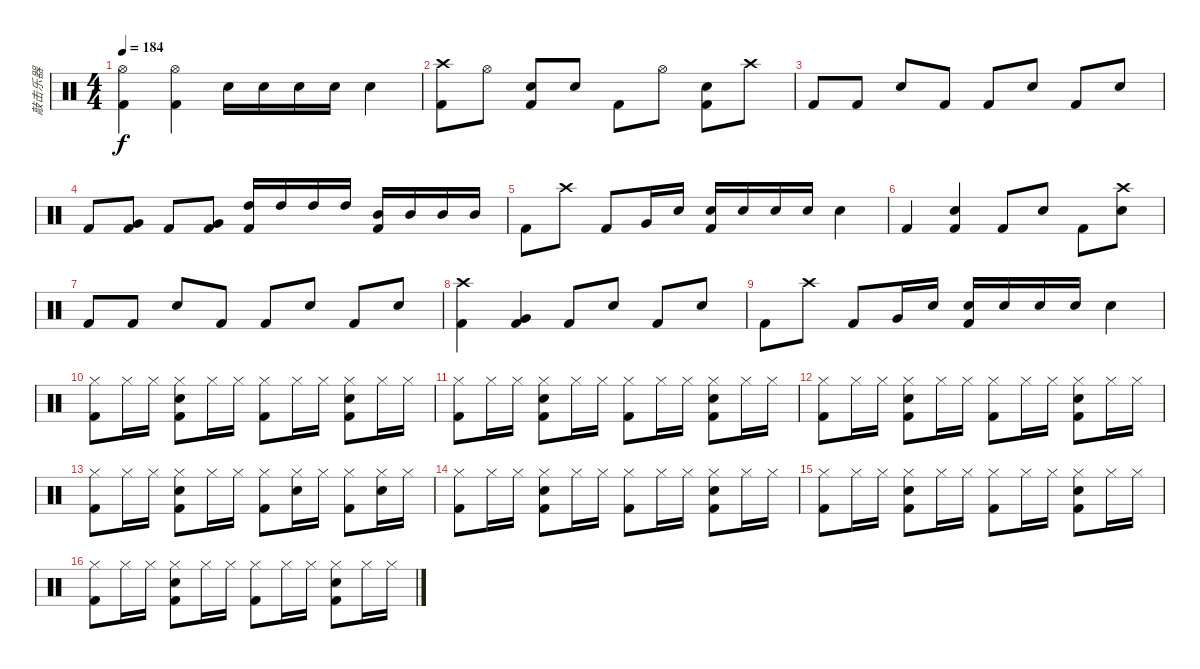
\track ("敲击乐器" "敲击乐器") {instrument percussion}
\staff {score}
\articulation defaults
\ts (4 4)
\tempo 184
\clef neutral
\ks c
("Hi-Hat (open)" "Kick (hit) 2").4{dy f} ("Hi-Hat (open)" "Kick (hit) 2").4 "Snare (hit) 2".16 "Snare (hit) 2".16 "Snare (hit) 2".16 "Snare (hit) 2".16 "Snare (hit) 2".4 |
("Crash high (hit)" "Kick (hit) 2").8 "Hi-Hat (open)".8 ("Snare (hit) 2" "Kick (hit) 2").8 "Snare (hit) 2".8 "Kick (hit) 2".8 "Hi-Hat (open)".8 ("Snare (hit) 2" "Kick (hit) 2").8 "Crash high (hit)".8 |
"Kick (hit) 2".8 "Kick (hit) 2".8 "Snare (hit) 2".8 "Kick (hit) 2".8 "Kick (hit) 2".8 "Snare (hit) 2".8 "Kick (hit) 2".8 "Snare (hit) 2".8 |
"Kick (hit) 2".8 ("Very Low Tom (hit)" "Kick (hit) 2").8 "Kick (hit) 2".8 ("Very Low Tom (hit)" "Kick (hit) 2").8 ("High Tom (hit)" "Kick (hit) 2").16 "High Tom (hit)".16 "High Tom (hit)".16 "High Tom (hit)".16 ("Mid Tom (hit)" "Kick (hit) 2").16 "Mid Tom (hit)".16 "Mid Tom (hit)".16 "Mid Tom (hit)".16 |
"Kick (hit) 2".8 "Crash high (hit)".8 "Kick (hit) 2".8 "Very Low Tom (hit)".16 "Snare (hit) 2".16 ("Snare (hit) 2" "Kick (hit) 2").16 "Snare (hit) 2".16 "Snare (hit) 2".16 "Snare (hit) 2".16 "Snare (hit) 2".4 |
"Kick (hit) 2".4 ("Snare (hit) 2" "Kick (hit) 2").4 "Kick (hit) 2".8 "Snare (hit) 2".8 "Kick (hit) 2".8 ("Crash high (hit)" "Snare (hit) 2").8 |
"Kick (hit) 2".8 "Kick (hit) 2".8 "Snare (hit) 2".8 "Kick (hit) 2".8 "Kick (hit) 2".8 "Snare (hit) 2".8 "Kick (hit) 2".8 "Snare (hit) 2".8 |
("Crash high (hit)" "Kick (hit) 2").4 ("Very Low Tom (hit)" "Kick (hit) 2").4 "Kick (hit) 2".8 "Snare (hit) 2".8 "Kick (hit) 2".8 "Snare (hit) 2".8 |
"Kick (hit) 2".8 "Crash high (hit)".8 "Kick (hit) 2".8 "Very Low Tom (hit)".16 "Snare (hit) 2".16 ("Snare (hit) 2" "Kick (hit) 2").16 "Snare (hit) 2".16 "Snare (hit) 2".16 "Snare (hit) 2".16 "Snare (hit) 2".4 |
("Hi-Hat (closed)" "Kick (hit) 2").8 "Hi-Hat (closed)".16 "Hi-Hat (closed)".16 ("Hi-Hat (closed)" "Snare (hit) 2" "Kick (hit) 2").8 "Hi-Hat (closed)".16 "Hi-Hat (closed)".16 ("Hi-Hat (closed)" "Kick (hit) 2").8 "Hi-Hat (closed)".16 "Hi-Hat (closed)".16 ("Hi-Hat (closed)" "Snare (hit) 2" "Kick (hit) 2").8 "Hi-Hat (closed)".16 "Hi-Hat (closed)".16 |
("Hi-Hat (closed)" "Kick (hit) 2").8 "Hi-Hat (closed)".16 "Hi-Hat (closed)".16 ("Hi-Hat (closed)" "Snare (hit) 2" "Kick (hit) 2").8 "Hi-Hat (closed)".16 "Hi-Hat (closed)".16 ("Hi-Hat (closed)" "Kick (hit) 2").8 "Hi-Hat (closed)".16 "Hi-Hat (closed)".16 ("Hi-Hat (closed)" "Snare (hit) 2" "Kick (hit) 2").8 "Hi-Hat (closed)".16 "Hi-Hat (closed)".16 |
("Hi-Hat (closed)" "Kick (hit) 2").8 "Hi-Hat (closed)".16 "Hi-Hat (closed)".16 ("Hi-Hat (closed)" "Snare (hit) 2" "Kick (hit) 2").8 "Hi-Hat (closed)".16 "Hi-Hat (closed)".16 ("Hi-Hat (closed)" "Kick (hit) 2").8 "Hi-Hat (closed)".16 "Hi-Hat (closed)".16 ("Hi-Hat (closed)" "Snare (hit) 2" "Kick (hit) 2").8 "Hi-Hat (closed)".16 "Hi-Hat (closed)".16 |
("Hi-Hat (closed)" "Kick (hit) 2").8 "Hi-Hat (closed)".16 "Hi-Hat (closed)".16 ("Hi-Hat (closed)" "Snare (hit) 2" "Kick (hit) 2").8 "Hi-Hat (closed)".16 "Hi-Hat (closed)".16 ("Hi-Hat (closed)" "Kick (hit) 2").8 ("Hi-Hat (closed)" "Snare (hit) 2").16 "Hi-Hat (closed)".16 ("Hi-Hat (closed)" "Kick (hit) 2").8 ("Hi-Hat (closed)" "Snare (hit) 2").16 "Hi-Hat (closed)".16 |
("Hi-Hat (closed)" "Kick (hit) 2").8 "Hi-Hat (closed)".16 "Hi-Hat (closed)".16 ("Hi-Hat (closed)" "Snare (hit) 2" "Kick (hit) 2").8 "Hi-Hat (closed)".16 "Hi-Hat (closed)".16 ("Hi-Hat (closed)" "Kick (hit) 2").8 "Hi-Hat (closed)".16 "Hi-Hat (closed)".16 ("Hi-Hat (closed)" "Snare (hit) 2" "Kick (hit) 2").8 "Hi-Hat (closed)".16 "Hi-Hat (closed)".16 |
("Hi-Hat (closed)" "Kick (hit) 2").8 "Hi-Hat (closed)".16 "Hi-Hat (closed)".16 ("Hi-Hat (closed)" "Snare (hit) 2" "Kick (hit) 2").8 "Hi-Hat (closed)".16 "Hi-Hat (closed)".16 ("Hi-Hat (closed)" "Kick (hit) 2").8 "Hi-Hat (closed)".16 "Hi-Hat (closed)".16 ("Hi-Hat (closed)" "Snare (hit) 2" "Kick (hit) 2").8 "Hi-Hat (closed)".16 "Hi-Hat (closed)".16 |
("Hi-Hat (closed)" "Kick (hit) 2").8 "Hi-Hat (closed)".16 "Hi-Hat (closed)".16 ("Hi-Hat (closed)" "Snare (hit) 2" "Kick (hit) 2").8 "Hi-Hat (closed)".16 "Hi-Hat (closed)".16 ("Hi-Hat (closed)" "Kick (hit) 2").8 "Hi-Hat (closed)".16 "Hi-Hat (closed)".16 ("Hi-Hat (closed)" "Snare (hit) 2" "Kick (hit) 2").8 "Hi-Hat (closed)".16 "Hi-Hat (closed)".16
